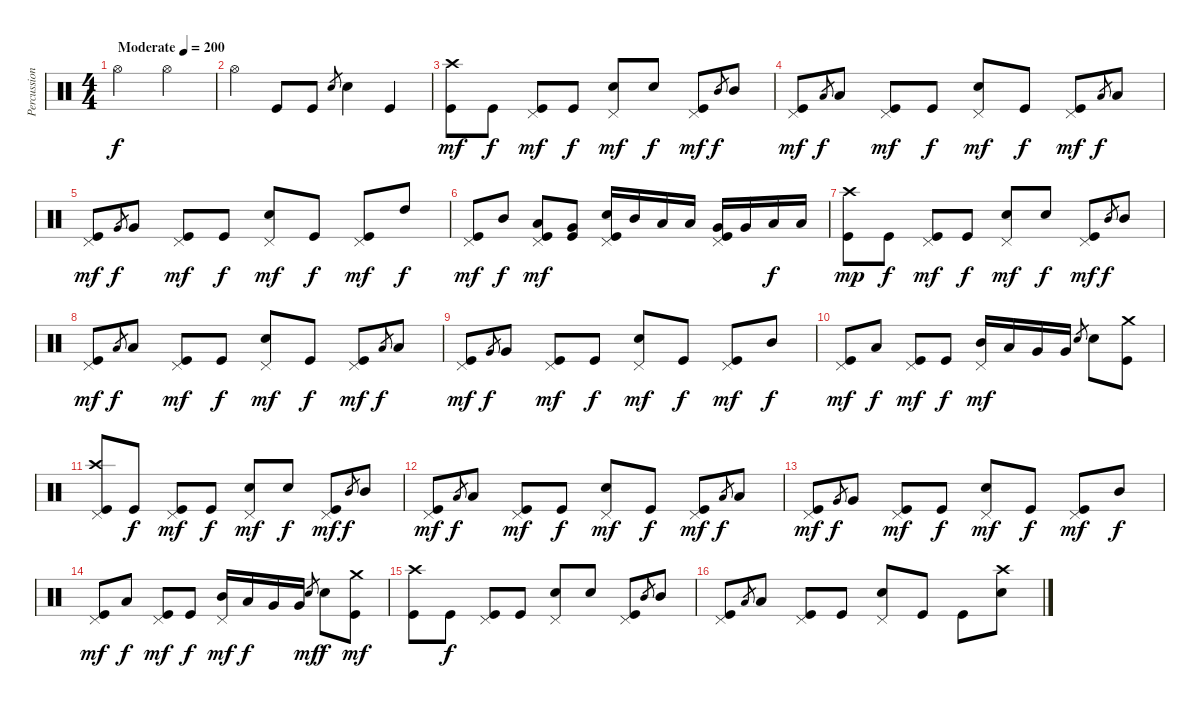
\track ("Percussion" "Percussion") {instrument percussion}
\staff {score}
\articulation defaults
\ts (4 4)
\tempo (200 "Moderate")
\clef neutral
\ks c "Hi-Hat (open)".2{dy f} "Hi-Hat (open)".2
|
"Hi-Hat (open)".4{beam Down} "Kick (hit)".8 "Kick (hit)".8 "Electric Snare (hit)".8{gr} "Electric Snare (hit)".4 "Kick (hit)".4 |
("Crash high (hit)" "Kick (hit)").8{dy mf} "Kick (hit)".8{dy f} ("Pedal Hi-Hat (hit)" "Kick (hit)").8{dy mf} "Kick (hit)".8{dy f} ("Pedal Hi-Hat (hit)" "Electric Snare (hit)").8{dy mf} "Electric Snare (hit)".8{dy f} ("Pedal Hi-Hat (hit)" "Kick (hit)").8{dy mf} "Mid Tom (hit)".8{gr dy f} "Mid Tom (hit)".8 |
("Pedal Hi-Hat (hit)" "Kick (hit)").8{dy mf} "Low Tom (hit)".8{gr dy f} "Low Tom (hit)".8 ("Pedal Hi-Hat (hit)" "Kick (hit)").8{dy mf} "Kick (hit)".8{dy f} ("Pedal Hi-Hat (hit)" "Electric Snare (hit)").8{dy mf} "Kick (hit)".8{dy f} ("Pedal Hi-Hat (hit)" "Kick (hit)").8{dy mf} "Low Tom (hit)".8{gr dy f} "Low Tom (hit)".8 |
("Pedal Hi-Hat (hit)" "Kick (hit)").8{dy mf} "Very Low Tom (hit)".8{gr dy f} "Very Low Tom (hit)".8 ("Pedal Hi-Hat (hit)" "Kick (hit)").8{dy mf} "Kick (hit)".8{dy f} ("Pedal Hi-Hat (hit)" "Electric Snare (hit)").8{dy mf} "Kick (hit)".8{dy f} ("Pedal Hi-Hat (hit)" "Kick (hit)").8{dy mf} "High Tom (hit)".8{dy f} |
("Pedal Hi-Hat (hit)" "Kick (hit)").8{dy mf} "Mid Tom (hit)".8{dy f} ("Pedal Hi-Hat (hit)" "Low Tom (hit)" "Kick (hit)").8{dy mf} ("Very Low Tom (hit)" "Kick (hit)").8 ("Pedal Hi-Hat (hit)" "Electric Snare (hit)" "Kick (hit)").16 "Mid Tom (hit)".16 "Low Tom (hit)".16 "Low Tom (hit)".16 ("Pedal Hi-Hat (hit)" "Very Low Tom (hit)" "Kick (hit)").16 "Very Low Tom (hit)".16 "Low Floor Tom (hit)".16{dy f} "Low Floor Tom (hit)".16 |
("Crash high (hit)" "Kick (hit)").8{dy mp} "Kick (hit)".8{dy f} ("Pedal Hi-Hat (hit)" "Kick (hit)").8{dy mf} "Kick (hit)".8{dy f} ("Pedal Hi-Hat (hit)" "Electric Snare (hit)").8{dy mf} "Electric Snare (hit)".8{dy f} ("Pedal Hi-Hat (hit)" "Kick (hit)").8{dy mf} "Mid Tom (hit)".8{gr dy f} "Mid Tom (hit)".8 |
("Pedal Hi-Hat (hit)" "Kick (hit)").8{dy mf} "Low Tom (hit)".8{gr dy f} "Low Tom (hit)".8 ("Pedal Hi-Hat (hit)" "Kick (hit)").8{dy mf} "Kick (hit)".8{dy f} ("Pedal Hi-Hat (hit)" "Electric Snare (hit)").8{dy mf} "Kick (hit)".8{dy f} ("Pedal Hi-Hat (hit)" "Kick (hit)").8{dy mf} "Low Tom (hit)".8{gr dy f} "Low Tom (hit)".8 |
("Pedal Hi-Hat (hit)" "Kick (hit)").8{dy mf} "Very Low Tom (hit)".8{gr dy f} "Very Low Tom (hit)".8 ("Pedal Hi-Hat (hit)" "Kick (hit)").8{dy mf} "Kick (hit)".8{dy f} ("Pedal Hi-Hat (hit)" "Electric Snare (hit)").8{dy mf} "Kick (hit)".8{dy f} ("Pedal Hi-Hat (hit)" "Kick (hit)").8{dy mf} "Mid Tom (hit)".8{dy f} |
("Pedal Hi-Hat (hit)" "Kick (hit)").8{dy mf} "Low Tom (hit)".8{dy f} ("Pedal Hi-Hat (hit)" "Kick (hit)").8{dy mf} "Kick (hit)".8{dy f} ("Pedal Hi-Hat (hit)" "Mid Tom (hit)").16{dy mf} "Low Tom (hit)".16 "Very Low Tom (hit)".16 "Very Low Tom (hit)".16 "Electric Snare (hit)".8{gr} "Electric Snare (hit)".8 ("Crash medium (hit)" "Kick (hit)").8 |
("Crash high (hit)" "Pedal Hi-Hat (hit)" "Kick (hit)").8 "Kick (hit)".8{dy f} ("Pedal Hi-Hat (hit)" "Kick (hit)").8{dy mf} "Kick (hit)".8{dy f} ("Pedal Hi-Hat (hit)" "Electric Snare (hit)").8{dy mf} "Electric Snare (hit)".8{dy f} ("Pedal Hi-Hat (hit)" "Kick (hit)").8{dy mf} "Mid Tom (hit)".8{gr dy f} "Mid Tom (hit)".8 |
("Pedal Hi-Hat (hit)" "Kick (hit)").8{dy mf} "Low Tom (hit)".8{gr dy f} "Low Tom (hit)".8 ("Pedal Hi-Hat (hit)" "Kick (hit)").8{dy mf} "Kick (hit)".8{dy f} ("Pedal Hi-Hat (hit)" "Electric Snare (hit)").8{dy mf} "Kick (hit)".8{dy f} ("Pedal Hi-Hat (hit)" "Kick (hit)").8{dy mf} "Low Tom (hit)".8{gr dy f} "Low Tom (hit)".8 |
("Pedal Hi-Hat (hit)" "Kick (hit)").8{dy mf} "Very Low Tom (hit)".8{gr dy f} "Very Low Tom (hit)".8 ("Pedal Hi-Hat (hit)" "Kick (hit)").8{dy mf} "Kick (hit)".8{dy f} ("Pedal Hi-Hat (hit)" "Electric Snare (hit)").8{dy mf} "Kick (hit)".8{dy f} ("Pedal Hi-Hat (hit)" "Kick (hit)").8{dy mf} "Mid Tom (hit)".8{dy f} |
("Pedal Hi-Hat (hit)" "Kick (hit)").8{dy mf} "Low Tom (hit)".8{dy f} ("Pedal Hi-Hat (hit)" "Kick (hit)").8{dy mf} "Kick (hit)".8{dy f} ("Pedal Hi-Hat (hit)" "Mid Tom (hit)").16{dy mf} "Low Tom (hit)".16{dy f} "Very Low Tom (hit)".16 "Very Low Tom (hit)".16 "Electric Snare (hit)".8{gr dy mf} "Electric Snare (hit)".8{dy f} ("Crash medium (hit)" "Kick (hit)").8{dy mf} |
("Crash high (hit)" "Kick (hit)").8 "Kick (hit)".8{dy f} ("Pedal Hi-Hat (hit)" "Kick (hit)").8 "Kick (hit)".8 ("Pedal Hi-Hat (hit)" "Electric Snare (hit)").8 "Electric Snare (hit)".8 ("Pedal Hi-Hat (hit)" "Kick (hit)").8 "Mid Tom (hit)".8{gr} "Mid Tom (hit)".8 |
("Pedal Hi-Hat (hit)" "Kick (hit)").8 "Low Tom (hit)".8{gr} "Low Tom (hit)".8 ("Pedal Hi-Hat (hit)" "Kick (hit)").8 "Kick (hit)".8 ("Pedal Hi-Hat (hit)" "Electric Snare (hit)").8 "Kick (hit)".8 "Kick (hit)".8 ("Crash high (hit)" "Electric Snare (hit)").8
